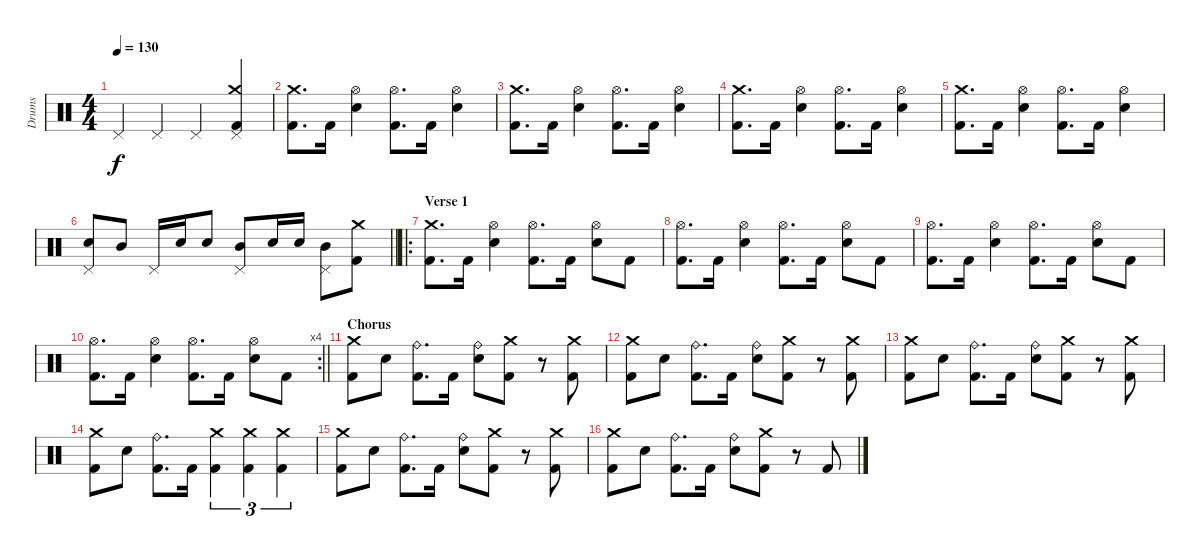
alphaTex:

\track ("Drums" "Drums") {instrument percussion}
\staff {score}
\articulation defaults
\ts (4 4)
\tempo 130
\clef neutral
\ks c "Pedal Hi-Hat (hit)".4{dy f} "Pedal Hi-Hat (hit)".4 "Pedal Hi-Hat (hit)".4
("Pedal Hi-Hat (hit)" "Crash medium (hit)" "Kick (hit) 2").4 |
("Crash medium (hit)" "Kick (hit) 2").8{d} "Kick (hit) 2".16 ("Hi-Hat (open)" "Snare (hit) 2").4 ("Hi-Hat (open)" "Kick (hit) 2").8{d} "Kick (hit) 2".16 ("Hi-Hat (open)" "Snare (hit) 2").4 |
("Crash medium (hit)" "Kick (hit) 2").8{d} "Kick (hit) 2".16 ("Hi-Hat (open)" "Snare (hit) 2").4 ("Hi-Hat (open)" "Kick (hit) 2").8{d} "Kick (hit) 2".16 ("Hi-Hat (open)" "Snare (hit) 2").4 |
("Crash medium (hit)" "Kick (hit) 2").8{d} "Kick (hit) 2".16 ("Hi-Hat (open)" "Snare (hit) 2").4 ("Hi-Hat (open)" "Kick (hit) 2").8{d} "Kick (hit) 2".16 ("Hi-Hat (open)" "Snare (hit) 2").4 |
("Crash medium (hit)" "Kick (hit) 2").8{d} "Kick (hit) 2".16 ("Hi-Hat (open)" "Snare (hit) 2").4 ("Hi-Hat (open)" "Kick (hit) 2").8{d} "Kick (hit) 2".16 ("Hi-Hat (open)" "Snare (hit) 2").4 |
\barLineRight lightlight
("Pedal Hi-Hat (hit)" "Snare (hit) 2").8 "Mid Tom (hit)".8 "Pedal Hi-Hat (hit)".16 "Snare (hit) 2".16 "Snare (hit) 2".8 ("Pedal Hi-Hat (hit)" "Mid Tom (hit)").8 "Snare (hit) 2".16 "Snare (hit) 2".16 ("Pedal Hi-Hat (hit)" "Mid Tom (hit)").8 ("Crash medium (hit)" "Kick (hit) 2").8 |
\ro
\section ("" "Verse 1")
("Crash medium (hit)" "Kick (hit) 2").8{d} "Kick (hit) 2".16 ("Hi-Hat (open)" "Snare (hit) 2").4 ("Hi-Hat (open)" "Kick (hit) 2").8{d} "Kick (hit) 2".16 ("Hi-Hat (open)" "Snare (hit) 2").8 "Kick (hit) 2".8 |
("Hi-Hat (open)" "Kick (hit) 2").8{d} "Kick (hit) 2".16 ("Hi-Hat (open)" "Snare (hit) 2").4 ("Hi-Hat (open)" "Kick (hit) 2").8{d} "Kick (hit) 2".16 ("Hi-Hat (open)" "Snare (hit) 2").8 "Kick (hit) 2".8 |
("Hi-Hat (open)" "Kick (hit) 2").8{d} "Kick (hit) 2".16 ("Hi-Hat (open)" "Snare (hit) 2").4 ("Hi-Hat (open)" "Kick (hit) 2").8{d} "Kick (hit) 2".16 ("Hi-Hat (open)" "Snare (hit) 2").8 "Kick (hit) 2".8 |
\rc 4
\barLineRight lightlight
("Hi-Hat (open)" "Kick (hit) 2").8{d} "Kick (hit) 2".16 ("Hi-Hat (open)" "Snare (hit) 2").4 ("Hi-Hat (open)" "Kick (hit) 2").8{d} "Kick (hit) 2".16 ("Hi-Hat (open)" "Snare (hit) 2").8 "Kick (hit) 2".8 |
\section ("" "Chorus")
("Crash medium (hit)" "Kick (hit) 2").8 "Snare (hit) 2".8 ("Ride (bell)" "Kick (hit) 2").8{d} "Kick (hit) 2".16 ("Ride (bell)" "Snare (hit) 2").8 ("Crash medium (hit)" "Kick (hit) 2").8 r.8 ("Crash medium (hit)" "Kick (hit) 2").8 |
("Crash medium (hit)" "Kick (hit) 2").8 "Snare (hit) 2".8 ("Ride (bell)" "Kick (hit) 2").8{d} "Kick (hit) 2".16 ("Ride (bell)" "Snare (hit) 2").8 ("Crash medium (hit)" "Kick (hit) 2").8 r.8 ("Crash medium (hit)" "Kick (hit) 2").8 |
("Crash medium (hit)" "Kick (hit) 2").8 "Snare (hit) 2".8 ("Ride (bell)" "Kick (hit) 2").8{d} "Kick (hit) 2".16 ("Ride (bell)" "Snare (hit) 2").8 ("Crash medium (hit)" "Kick (hit) 2").8 r.8 ("Crash medium (hit)" "Kick (hit) 2").8 |
("Crash medium (hit)" "Kick (hit) 2").8 "Snare (hit) 2".8 ("Ride (bell)" "Kick (hit) 2").8{d} "Kick (hit) 2".16 ("Crash medium (hit)" "Kick (hit) 2").4{tu (3 2)} ("Crash medium (hit)" "Kick (hit) 2").4{tu (3 2)} ("Crash medium (hit)" "Kick (hit) 2").4{tu (3 2)} |
("Crash medium (hit)" "Kick (hit) 2").8 "Snare (hit) 2".8 ("Ride (bell)" "Kick (hit) 2").8{d} "Kick (hit) 2".16 ("Ride (bell)" "Snare (hit) 2").8 ("Crash medium (hit)" "Kick (hit) 2").8 r.8 ("Crash medium (hit)" "Kick (hit) 2").8 |
("Crash medium (hit)" "Kick (hit) 2").8 "Snare (hit) 2".8 ("Ride (bell)" "Kick (hit) 2").8{d} "Kick (hit) 2".16 ("Ride (bell)" "Snare (hit) 2").8 ("Crash medium (hit)" "Kick (hit) 2").8 r.8 "Kick (hit) 2".8
